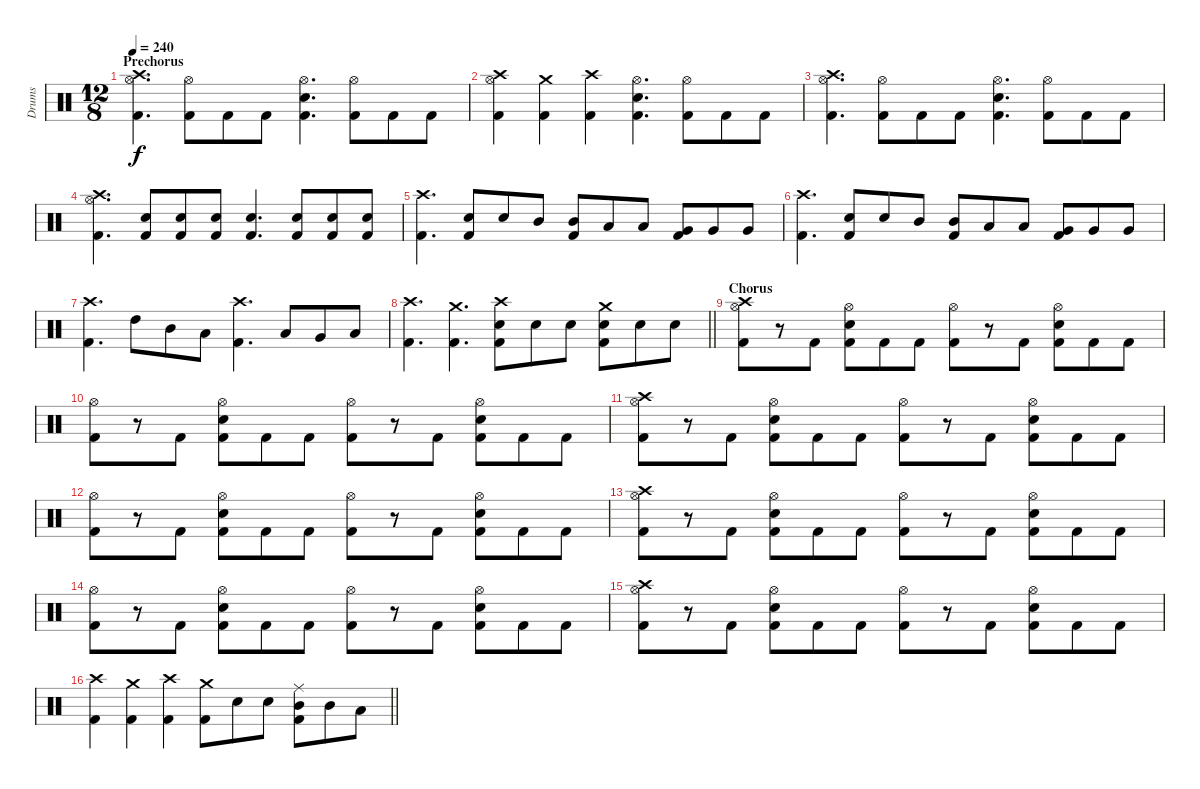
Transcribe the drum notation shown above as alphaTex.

\track ("Drums" "Drums") {instrument percussion}
\staff {score}
\articulation defaults
\ts (12 8)
\section ("" "Prechorus")
\tempo 240
\clef neutral
\ks c
("Crash high (hit)" "Hi-Hat (open)" "Kick (hit) 2").4{d dy f} ("Hi-Hat (open)" "Kick (hit) 2").8 "Kick (hit) 2".8 "Kick (hit) 2".8 ("Hi-Hat (open)" "Snare (hit) 2" "Kick (hit) 2").4{d} ("Hi-Hat (open)" "Kick (hit) 2").8 "Kick (hit) 2".8 "Kick (hit) 2".8 |
("Crash high (hit)" "Hi-Hat (open)" "Kick (hit) 2").4 ("Crash medium (hit)" "Kick (hit) 2").4 ("Crash high (hit)" "Kick (hit) 2").4 ("Hi-Hat (open)" "Snare (hit) 2" "Kick (hit) 2").4{d} ("Hi-Hat (open)" "Kick (hit) 2").8 "Kick (hit) 2".8 "Kick (hit) 2".8 |
("Crash high (hit)" "Hi-Hat (open)" "Kick (hit) 2").4{d} ("Hi-Hat (open)" "Kick (hit) 2").8 "Kick (hit) 2".8 "Kick (hit) 2".8 ("Hi-Hat (open)" "Snare (hit) 2" "Kick (hit) 2").4{d} ("Hi-Hat (open)" "Kick (hit) 2").8 "Kick (hit) 2".8 "Kick (hit) 2".8 |
("Crash high (hit)" "Hi-Hat (open)" "Kick (hit) 2").4{d} ("Snare (hit) 2" "Kick (hit) 2").8 ("Snare (hit) 2" "Kick (hit) 2").8 ("Snare (hit) 2" "Kick (hit) 2").8 ("Snare (hit) 2" "Kick (hit) 2").4{d} ("Snare (hit) 2" "Kick (hit) 2").8 ("Snare (hit) 2" "Kick (hit) 2").8 ("Snare (hit) 2" "Kick (hit) 2").8 |
("Crash high (hit)" "Kick (hit) 2").4{d} ("Snare (hit) 2" "Kick (hit) 2").8 "Snare (hit) 2".8 "Mid Tom (hit)".8 ("Mid Tom (hit)" "Kick (hit) 2").8 "Low Tom (hit)".8 "Low Tom (hit)".8 ("Very Low Tom (hit)" "Kick (hit) 2").8 "Very Low Tom (hit)".8 "Very Low Tom (hit)".8 |
("Crash high (hit)" "Kick (hit) 2").4{d} ("Snare (hit) 2" "Kick (hit) 2").8 "Snare (hit) 2".8 "Mid Tom (hit)".8 ("Mid Tom (hit)" "Kick (hit) 2").8 "Low Tom (hit)".8 "Low Tom (hit)".8 ("Very Low Tom (hit)" "Kick (hit) 2").8 "Very Low Tom (hit)".8 "Very Low Tom (hit)".8 |
("Crash high (hit)" "Kick (hit) 2").4{d} "High Tom (hit)".8 "Mid Tom (hit)".8 "Low Tom (hit)".8 ("Crash high (hit)" "Kick (hit) 2").4{d} "Low Tom (hit)".8 "Very Low Tom (hit)".8 "Low Floor Tom (hit)".8 |
\barLineRight lightlight
("Crash high (hit)" "Kick (hit) 2").4{d} ("Crash medium (hit)" "Kick (hit) 2").4{d} ("Crash high (hit)" "Snare (hit) 2" "Kick (hit) 2").8 "Snare (hit) 2".8 "Snare (hit) 2".8 ("Crash medium (hit)" "Snare (hit) 2" "Kick (hit) 2").8 "Snare (hit) 2".8 "Snare (hit) 2".8 |
\section ("" "Chorus")
("Crash high (hit)" "Hi-Hat (open)" "Kick (hit) 2").8 r.8 "Kick (hit) 2".8 ("Hi-Hat (open)" "Snare (hit) 2" "Kick (hit) 2").8 "Kick (hit) 2".8 "Kick (hit) 2".8 ("Hi-Hat (open)" "Kick (hit) 2").8 r.8 "Kick (hit) 2".8 ("Hi-Hat (open)" "Snare (hit) 2" "Kick (hit) 2").8 "Kick (hit) 2".8 "Kick (hit) 2".8 |
("Hi-Hat (open)" "Kick (hit) 2").8 r.8 "Kick (hit) 2".8 ("Hi-Hat (open)" "Snare (hit) 2" "Kick (hit) 2").8 "Kick (hit) 2".8 "Kick (hit) 2".8 ("Hi-Hat (open)" "Kick (hit) 2").8 r.8 "Kick (hit) 2".8 ("Hi-Hat (open)" "Snare (hit) 2" "Kick (hit) 2").8 "Kick (hit) 2".8 "Kick (hit) 2".8 |
("Crash high (hit)" "Hi-Hat (open)" "Kick (hit) 2").8 r.8 "Kick (hit) 2".8 ("Hi-Hat (open)" "Snare (hit) 2" "Kick (hit) 2").8 "Kick (hit) 2".8 "Kick (hit) 2".8 ("Hi-Hat (open)" "Kick (hit) 2").8 r.8 "Kick (hit) 2".8 ("Hi-Hat (open)" "Snare (hit) 2" "Kick (hit) 2").8 "Kick (hit) 2".8 "Kick (hit) 2".8 |
("Hi-Hat (open)" "Kick (hit) 2").8 r.8 "Kick (hit) 2".8 ("Hi-Hat (open)" "Snare (hit) 2" "Kick (hit) 2").8 "Kick (hit) 2".8 "Kick (hit) 2".8 ("Hi-Hat (open)" "Kick (hit) 2").8 r.8 "Kick (hit) 2".8 ("Hi-Hat (open)" "Snare (hit) 2" "Kick (hit) 2").8 "Kick (hit) 2".8 "Kick (hit) 2".8 |
("Crash high (hit)" "Hi-Hat (open)" "Kick (hit) 2").8 r.8 "Kick (hit) 2".8 ("Hi-Hat (open)" "Snare (hit) 2" "Kick (hit) 2").8 "Kick (hit) 2".8 "Kick (hit) 2".8 ("Hi-Hat (open)" "Kick (hit) 2").8 r.8 "Kick (hit) 2".8 ("Hi-Hat (open)" "Snare (hit) 2" "Kick (hit) 2").8 "Kick (hit) 2".8 "Kick (hit) 2".8 |
("Hi-Hat (open)" "Kick (hit) 2").8 r.8 "Kick (hit) 2".8 ("Hi-Hat (open)" "Snare (hit) 2" "Kick (hit) 2").8 "Kick (hit) 2".8 "Kick (hit) 2".8 ("Hi-Hat (open)" "Kick (hit) 2").8 r.8 "Kick (hit) 2".8 ("Hi-Hat (open)" "Snare (hit) 2" "Kick (hit) 2").8 "Kick (hit) 2".8 "Kick (hit) 2".8 |
("Crash high (hit)" "Hi-Hat (open)" "Kick (hit) 2").8 r.8 "Kick (hit) 2".8 ("Hi-Hat (open)" "Snare (hit) 2" "Kick (hit) 2").8 "Kick (hit) 2".8 "Kick (hit) 2".8 ("Hi-Hat (open)" "Kick (hit) 2").8 r.8 "Kick (hit) 2".8 ("Hi-Hat (open)" "Snare (hit) 2" "Kick (hit) 2").8 "Kick (hit) 2".8 "Kick (hit) 2".8 |
\barLineRight lightlight
("Crash high (hit)" "Kick (hit) 2").4 ("Crash medium (hit)" "Kick (hit) 2").4 ("Crash high (hit)" "Kick (hit) 2").4 ("Crash medium (hit)" "Kick (hit) 2").8 "Snare (hit) 2".8 "Snare (hit) 2".8 ("Ride (middle)" "Mid Tom (hit)" "Kick (hit) 2").8 "Mid Tom (hit)".8 "Low Tom (hit)".8
